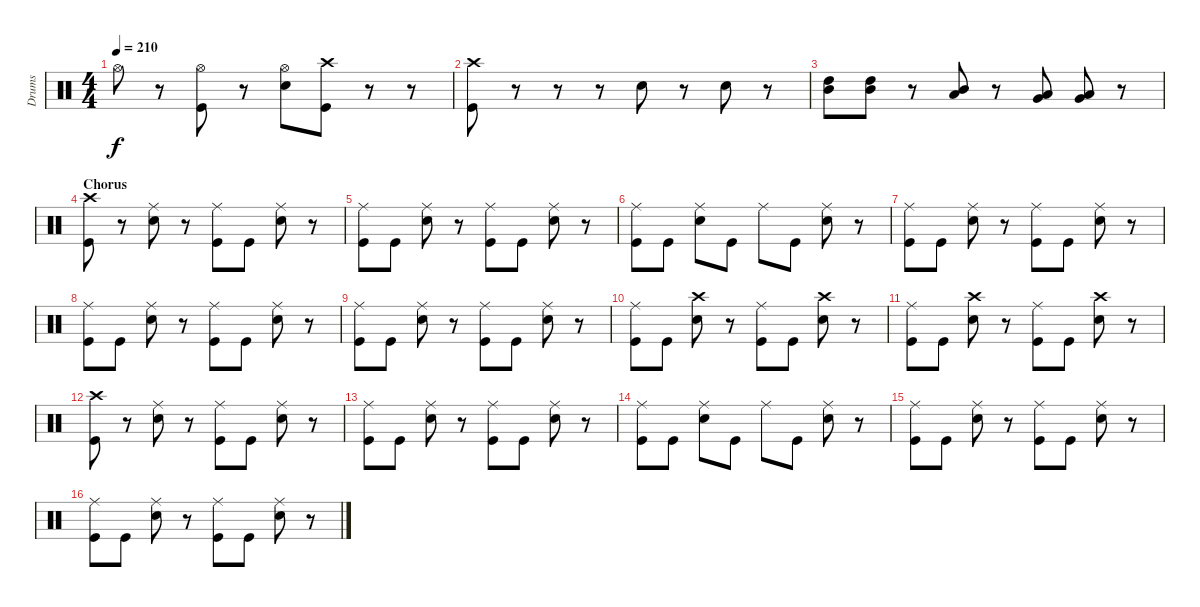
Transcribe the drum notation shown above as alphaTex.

\track ("Drums" "Drums") {instrument percussion}
\staff {score}
\articulation defaults
\ts (4 4)
\tempo 210
\clef neutral
\ks c "Hi-Hat (open)".8{dy f}
r.8 ("Hi-Hat (open)" "Kick (hit)").8 r.8 ("Hi-Hat (open)" "Snare (hit) 2").8 ("Crash high (hit)" "Kick (hit)").8 r.8 r.8 |
("Crash high (hit)" "Kick (hit)").8 r.8 r.8 r.8 "Snare (hit) 2".8 r.8 "Snare (hit) 2".8 r.8 |
("High Tom (hit)" "Mid Tom (hit)").8 ("High Tom (hit)" "Mid Tom (hit)").8 r.8 ("Mid Tom (hit)" "Low Tom (hit)").8 r.8 ("Low Tom (hit)" "Very Low Tom (hit)").8 ("Very Low Tom (hit)" "Low Floor Tom (hit)").8 r.8 |
\section ("" "Chorus")
("Crash high (hit)" "Kick (hit)").8 r.8 ("Ride (middle)" "Snare (hit) 2").8 r.8 ("Ride (middle)" "Kick (hit)").8 "Kick (hit)".8 ("Ride (middle)" "Snare (hit) 2").8 r.8 |
("Ride (middle)" "Kick (hit)").8 "Kick (hit)".8 ("Ride (middle)" "Snare (hit) 2").8 r.8 ("Ride (middle)" "Kick (hit)").8 "Kick (hit)".8 ("Ride (middle)" "Snare (hit) 2").8 r.8 |
("Ride (middle)" "Kick (hit)").8 "Kick (hit)".8 ("Ride (middle)" "Snare (hit) 2").8 "Kick (hit)".8 "Ride (middle)".8 "Kick (hit)".8 ("Ride (middle)" "Snare (hit) 2").8 r.8 |
("Ride (middle)" "Kick (hit)").8 "Kick (hit)".8 ("Ride (middle)" "Snare (hit) 2").8 r.8 ("Ride (middle)" "Kick (hit)").8 "Kick (hit)".8 ("Ride (middle)" "Snare (hit) 2").8 r.8 |
("Ride (middle)" "Kick (hit)").8 "Kick (hit)".8 ("Ride (middle)" "Snare (hit) 2").8 r.8 ("Ride (middle)" "Kick (hit)").8 "Kick (hit)".8 ("Ride (middle)" "Snare (hit) 2").8 r.8 |
("Ride (middle)" "Kick (hit)").8 "Kick (hit)".8 ("Ride (middle)" "Snare (hit) 2").8 r.8 ("Ride (middle)" "Kick (hit)").8 "Kick (hit)".8 ("Ride (middle)" "Snare (hit) 2").8 r.8 |
("Ride (middle)" "Kick (hit)").8 "Kick (hit)".8 ("Crash high (hit)" "Snare (hit) 2").8 r.8 ("Ride (middle)" "Kick (hit)").8 "Kick (hit)".8 ("Crash high (hit)" "Snare (hit) 2").8 r.8 |
("Ride (middle)" "Kick (hit)").8 "Kick (hit)".8 ("Crash high (hit)" "Snare (hit) 2").8 r.8 ("Ride (middle)" "Kick (hit)").8 "Kick (hit)".8 ("Crash high (hit)" "Snare (hit) 2").8 r.8 |
("Crash high (hit)" "Kick (hit)").8 r.8 ("Ride (middle)" "Snare (hit) 2").8 r.8 ("Ride (middle)" "Kick (hit)").8 "Kick (hit)".8 ("Ride (middle)" "Snare (hit) 2").8 r.8 |
("Ride (middle)" "Kick (hit)").8 "Kick (hit)".8 ("Ride (middle)" "Snare (hit) 2").8 r.8 ("Ride (middle)" "Kick (hit)").8 "Kick (hit)".8 ("Ride (middle)" "Snare (hit) 2").8 r.8 |
("Ride (middle)" "Kick (hit)").8 "Kick (hit)".8 ("Ride (middle)" "Snare (hit) 2").8 "Kick (hit)".8 "Ride (middle)".8 "Kick (hit)".8 ("Ride (middle)" "Snare (hit) 2").8 r.8 |
("Ride (middle)" "Kick (hit)").8 "Kick (hit)".8 ("Ride (middle)" "Snare (hit) 2").8 r.8 ("Ride (middle)" "Kick (hit)").8 "Kick (hit)".8 ("Ride (middle)" "Snare (hit) 2").8 r.8 |
("Ride (middle)" "Kick (hit)").8 "Kick (hit)".8 ("Ride (middle)" "Snare (hit) 2").8 r.8 ("Ride (middle)" "Kick (hit)").8 "Kick (hit)".8 ("Ride (middle)" "Snare (hit) 2").8 r.8
